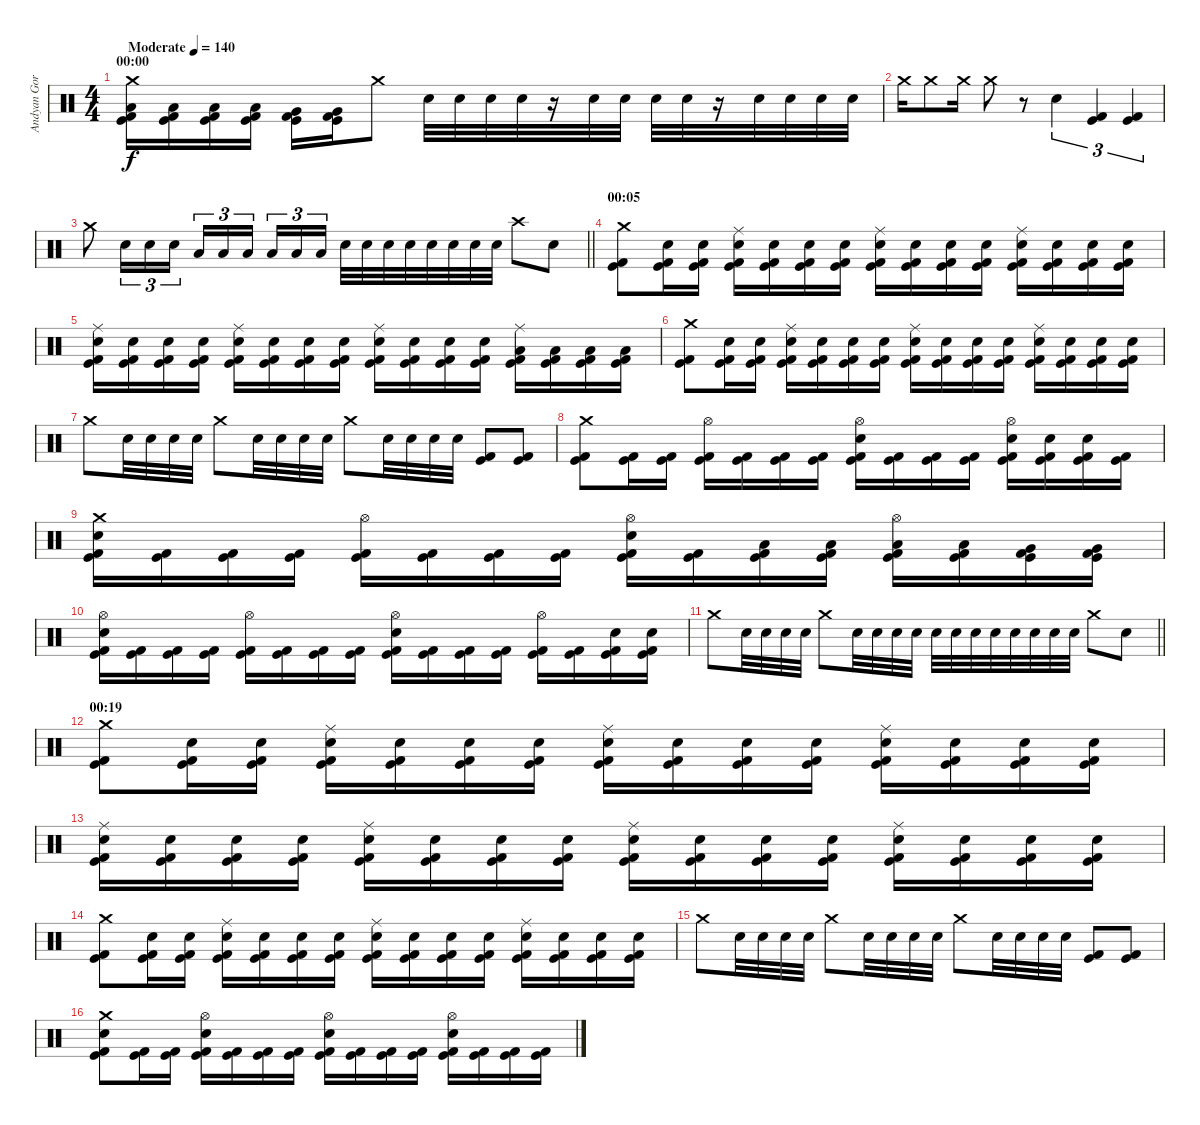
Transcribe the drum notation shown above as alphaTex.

\track ("Andyan Gorust" "Andyan Gor") {instrument percussion}
\staff {score}
\articulation defaults
\ts (4 4)
\section ("" "00:00")
\tempo (140 "Moderate")
\clef neutral
\ks c
("Crash medium (hit)" "Low Tom (hit)" "Kick (hit)" "Kick (hit) 2").16{dy f} ("Low Tom (hit)" "Kick (hit)" "Kick (hit) 2").16 ("Low Floor Tom (hit)" "Kick (hit)" "Kick (hit) 2").16 ("Low Floor Tom (hit)" "Kick (hit)" "Kick (hit) 2").16 ("Very Low Tom (hit)" "Kick (hit)" "Kick (hit) 2").16 ("Very Low Tom (hit)" "Kick (hit)" "Kick (hit) 2").16 "Crash medium (hit)".8 "Electric Snare (hit)".32 "Electric Snare (hit)".32 "Electric Snare (hit)".32 "Electric Snare (hit)".32 r.16 "Electric Snare (hit)".32 "Electric Snare (hit)".32 "Electric Snare (hit)".32 "Electric Snare (hit)".32 r.16 "Electric Snare (hit)".32 "Electric Snare (hit)".32 "Electric Snare (hit)".32 "Electric Snare (hit)".32 |
"Crash medium (hit)".16 "Crash medium (hit)".8 "Crash medium (hit)".16 "Crash medium (hit)".8 r.8 "Electric Snare (hit)".4{tu (3 2)} ("Kick (hit)" "Kick (hit) 2").4{tu (3 2)} ("Kick (hit)" "Kick (hit) 2").4{tu (3 2)} |
\barLineRight lightlight "Crash medium (hit)".8 "Electric Snare (hit)".16{tu (3 2)} "Electric Snare (hit)".16{tu (3 2)} "Electric Snare (hit)".16{tu (3 2)} "Low Tom (hit)".16{tu (3 2)} "Low Tom (hit)".16{tu (3 2)} "Low Tom (hit)".16{tu (3 2) beam splitsecondary} "Low Floor Tom (hit)".16{tu (3 2)} "Low Floor Tom (hit)".16{tu (3 2)} "Low Floor Tom (hit)".16{tu (3 2)} "Electric Snare (hit)".32 "Electric Snare (hit)".32 "Electric Snare (hit)".32 "Electric Snare (hit)".32 "Electric Snare (hit)".32 "Electric Snare (hit)".32 "Electric Snare (hit)".32 "Electric Snare (hit)".32 "Crash high (hit)".8 "Electric Snare (hit)".8
|
\section ("" "00:05")
("Crash medium (hit)" "Kick (hit)" "Kick (hit) 2").8 ("Electric Snare (hit)" "Kick (hit)" "Kick (hit) 2").16 ("Electric Snare (hit)" "Kick (hit)" "Kick (hit) 2").16 ("Ride (middle)" "Electric Snare (hit)" "Kick (hit)" "Kick (hit) 2").16 ("Electric Snare (hit)" "Kick (hit)" "Kick (hit) 2").16 ("Electric Snare (hit)" "Kick (hit)" "Kick (hit) 2").16 ("Electric Snare (hit)" "Kick (hit)" "Kick (hit) 2").16 ("Ride (middle)" "Electric Snare (hit)" "Kick (hit)" "Kick (hit) 2").16 ("Electric Snare (hit)" "Kick (hit)" "Kick (hit) 2").16 ("Electric Snare (hit)" "Kick (hit)" "Kick (hit) 2").16 ("Electric Snare (hit)" "Kick (hit)" "Kick (hit) 2").16 ("Ride (middle)" "Electric Snare (hit)" "Kick (hit)" "Kick (hit) 2").16 ("Electric Snare (hit)" "Kick (hit)" "Kick (hit) 2").16 ("Electric Snare (hit)" "Kick (hit)" "Kick (hit) 2").16 ("Electric Snare (hit)" "Kick (hit)" "Kick (hit) 2").16 |
("Ride (middle)" "Electric Snare (hit)" "Kick (hit)" "Kick (hit) 2").16 ("Electric Snare (hit)" "Kick (hit)" "Kick (hit) 2").16 ("Electric Snare (hit)" "Kick (hit)" "Kick (hit) 2").16 ("Electric Snare (hit)" "Kick (hit)" "Kick (hit) 2").16 ("Ride (middle)" "Electric Snare (hit)" "Kick (hit)" "Kick (hit) 2").16 ("Electric Snare (hit)" "Kick (hit)" "Kick (hit) 2").16 ("Electric Snare (hit)" "Kick (hit)" "Kick (hit) 2").16 ("Electric Snare (hit)" "Kick (hit)" "Kick (hit) 2").16 ("Ride (middle)" "Electric Snare (hit)" "Kick (hit)" "Kick (hit) 2").16 ("Electric Snare (hit)" "Kick (hit)" "Kick (hit) 2").16 ("Electric Snare (hit)" "Kick (hit)" "Kick (hit) 2").16 ("Electric Snare (hit)" "Kick (hit)" "Kick (hit) 2").16 ("Ride (middle)" "Low Tom (hit)" "Kick (hit)" "Kick (hit) 2").16 ("Low Tom (hit)" "Kick (hit)" "Kick (hit) 2").16 ("Low Floor Tom (hit)" "Kick (hit)" "Kick (hit) 2").16 ("Low Floor Tom (hit)" "Kick (hit)" "Kick (hit) 2").16 |
("Crash medium (hit)" "Kick (hit)" "Kick (hit) 2").8 ("Electric Snare (hit)" "Kick (hit)" "Kick (hit) 2").16 ("Electric Snare (hit)" "Kick (hit)" "Kick (hit) 2").16 ("Ride (middle)" "Electric Snare (hit)" "Kick (hit)" "Kick (hit) 2").16 ("Electric Snare (hit)" "Kick (hit)" "Kick (hit) 2").16 ("Electric Snare (hit)" "Kick (hit)" "Kick (hit) 2").16 ("Electric Snare (hit)" "Kick (hit)" "Kick (hit) 2").16 ("Ride (middle)" "Electric Snare (hit)" "Kick (hit)" "Kick (hit) 2").16 ("Electric Snare (hit)" "Kick (hit)" "Kick (hit) 2").16 ("Electric Snare (hit)" "Kick (hit)" "Kick (hit) 2").16 ("Electric Snare (hit)" "Kick (hit)" "Kick (hit) 2").16 ("Ride (middle)" "Electric Snare (hit)" "Kick (hit)" "Kick (hit) 2").16 ("Electric Snare (hit)" "Kick (hit)" "Kick (hit) 2").16 ("Electric Snare (hit)" "Kick (hit)" "Kick (hit) 2").16 ("Electric Snare (hit)" "Kick (hit)" "Kick (hit) 2").16 |
"Crash medium (hit)".8 "Electric Snare (hit)".32 "Electric Snare (hit)".32 "Electric Snare (hit)".32 "Electric Snare (hit)".32 "Crash medium (hit)".8 "Electric Snare (hit)".32 "Electric Snare (hit)".32 "Electric Snare (hit)".32 "Electric Snare (hit)".32 "Crash medium (hit)".8 "Electric Snare (hit)".32 "Electric Snare (hit)".32 "Electric Snare (hit)".32 "Electric Snare (hit)".32 ("Kick (hit)" "Kick (hit) 2").8 ("Kick (hit)" "Kick (hit) 2").8 |
("Crash medium (hit)" "Kick (hit) 2" "Kick (hit)").8 ("Kick (hit)" "Kick (hit) 2").16 ("Kick (hit)" "Kick (hit) 2").16 ("Hi-Hat (open)" "Kick (hit)" "Kick (hit) 2").16 ("Kick (hit)" "Kick (hit) 2").16 ("Kick (hit)" "Kick (hit) 2").16 ("Kick (hit)" "Kick (hit) 2").16 ("Hi-Hat (open)" "Electric Snare (hit)" "Kick (hit)" "Kick (hit) 2").16 ("Kick (hit)" "Kick (hit) 2").16 ("Kick (hit)" "Kick (hit) 2").16 ("Kick (hit)" "Kick (hit) 2").16 ("Hi-Hat (open)" "Electric Snare (hit)" "Kick (hit)" "Kick (hit) 2").16 ("Electric Snare (hit)" "Kick (hit)" "Kick (hit) 2").16 ("Electric Snare (hit)" "Kick (hit)" "Kick (hit) 2").16 ("Kick (hit)" "Kick (hit) 2").16 |
("Crash medium (hit)" "Electric Snare (hit)" "Kick (hit) 2" "Kick (hit)").16 ("Kick (hit)" "Kick (hit) 2").16 ("Kick (hit)" "Kick (hit) 2").16 ("Kick (hit)" "Kick (hit) 2").16 ("Hi-Hat (open)" "Kick (hit)" "Kick (hit) 2").16 ("Kick (hit)" "Kick (hit) 2").16 ("Kick (hit)" "Kick (hit) 2").16 ("Kick (hit)" "Kick (hit) 2").16 ("Hi-Hat (open)" "Electric Snare (hit)" "Kick (hit)" "Kick (hit) 2").16 ("Kick (hit)" "Kick (hit) 2").16 ("Low Tom (hit)" "Kick (hit)" "Kick (hit) 2").16 ("Low Tom (hit)" "Kick (hit)" "Kick (hit) 2").16 ("Hi-Hat (open)" "Low Floor Tom (hit)" "Kick (hit)" "Kick (hit) 2").16 ("Low Floor Tom (hit)" "Kick (hit)" "Kick (hit) 2").16 ("Very Low Tom (hit)" "Kick (hit)" "Kick (hit) 2").16 ("Very Low Tom (hit)" "Kick (hit)" "Kick (hit) 2").16 |
("Hi-Hat (open)" "Electric Snare (hit)" "Kick (hit) 2" "Kick (hit)").16 ("Kick (hit)" "Kick (hit) 2").16 ("Kick (hit)" "Kick (hit) 2").16 ("Kick (hit)" "Kick (hit) 2").16 ("Hi-Hat (open)" "Kick (hit)" "Kick (hit) 2").16 ("Kick (hit)" "Kick (hit) 2").16 ("Kick (hit)" "Kick (hit) 2").16 ("Kick (hit)" "Kick (hit) 2").16 ("Hi-Hat (open)" "Electric Snare (hit)" "Kick (hit)" "Kick (hit) 2").16 ("Kick (hit)" "Kick (hit) 2").16 ("Kick (hit)" "Kick (hit) 2").16 ("Kick (hit)" "Kick (hit) 2").16 ("Hi-Hat (open)" "Kick (hit)" "Kick (hit) 2").16 ("Kick (hit)" "Kick (hit) 2").16 ("Electric Snare (hit)" "Kick (hit)" "Kick (hit) 2").16 ("Electric Snare (hit)" "Kick (hit)" "Kick (hit) 2").16 |
\barLineRight lightlight "Crash medium (hit)".8 "Electric Snare (hit)".32 "Electric Snare (hit)".32 "Electric Snare (hit)".32 "Electric Snare (hit)".32 "Crash medium (hit)".8 "Electric Snare (hit)".32 "Electric Snare (hit)".32 "Electric Snare (hit)".32 "Electric Snare (hit)".32 "Electric Snare (hit)".32 "Electric Snare (hit)".32 "Electric Snare (hit)".32 "Electric Snare (hit)".32 "Electric Snare (hit)".32 "Electric Snare (hit)".32 "Electric Snare (hit)".32 "Electric Snare (hit)".32 "Crash medium (hit)".8 "Electric Snare (hit)".8
|
\section ("" "00:19")
("Crash medium (hit)" "Kick (hit)" "Kick (hit) 2").8 ("Electric Snare (hit)" "Kick (hit)" "Kick (hit) 2").16 ("Electric Snare (hit)" "Kick (hit)" "Kick (hit) 2").16 ("Ride (middle)" "Electric Snare (hit)" "Kick (hit)" "Kick (hit) 2").16 ("Electric Snare (hit)" "Kick (hit)" "Kick (hit) 2").16 ("Electric Snare (hit)" "Kick (hit)" "Kick (hit) 2").16 ("Electric Snare (hit)" "Kick (hit)" "Kick (hit) 2").16 ("Ride (middle)" "Electric Snare (hit)" "Kick (hit)" "Kick (hit) 2").16 ("Electric Snare (hit)" "Kick (hit)" "Kick (hit) 2").16 ("Electric Snare (hit)" "Kick (hit)" "Kick (hit) 2").16 ("Electric Snare (hit)" "Kick (hit)" "Kick (hit) 2").16 ("Ride (middle)" "Electric Snare (hit)" "Kick (hit)" "Kick (hit) 2").16 ("Electric Snare (hit)" "Kick (hit)" "Kick (hit) 2").16 ("Electric Snare (hit)" "Kick (hit)" "Kick (hit) 2").16 ("Electric Snare (hit)" "Kick (hit)" "Kick (hit) 2").16 |
("Ride (middle)" "Electric Snare (hit)" "Kick (hit)" "Kick (hit) 2").16 ("Electric Snare (hit)" "Kick (hit)" "Kick (hit) 2").16 ("Electric Snare (hit)" "Kick (hit)" "Kick (hit) 2").16 ("Electric Snare (hit)" "Kick (hit)" "Kick (hit) 2").16 ("Ride (middle)" "Electric Snare (hit)" "Kick (hit)" "Kick (hit) 2").16 ("Electric Snare (hit)" "Kick (hit)" "Kick (hit) 2").16 ("Electric Snare (hit)" "Kick (hit)" "Kick (hit) 2").16 ("Electric Snare (hit)" "Kick (hit)" "Kick (hit) 2").16 ("Ride (middle)" "Electric Snare (hit)" "Kick (hit)" "Kick (hit) 2").16 ("Electric Snare (hit)" "Kick (hit)" "Kick (hit) 2").16 ("Electric Snare (hit)" "Kick (hit)" "Kick (hit) 2").16 ("Electric Snare (hit)" "Kick (hit)" "Kick (hit) 2").16 ("Ride (middle)" "Electric Snare (hit)" "Kick (hit)" "Kick (hit) 2").16 ("Electric Snare (hit)" "Kick (hit)" "Kick (hit) 2").16 ("Electric Snare (hit)" "Kick (hit)" "Kick (hit) 2").16 ("Electric Snare (hit)" "Kick (hit)" "Kick (hit) 2").16 |
("Crash medium (hit)" "Kick (hit)" "Kick (hit) 2").8 ("Electric Snare (hit)" "Kick (hit)" "Kick (hit) 2").16 ("Electric Snare (hit)" "Kick (hit)" "Kick (hit) 2").16 ("Ride (middle)" "Electric Snare (hit)" "Kick (hit)" "Kick (hit) 2").16 ("Electric Snare (hit)" "Kick (hit)" "Kick (hit) 2").16 ("Electric Snare (hit)" "Kick (hit)" "Kick (hit) 2").16 ("Electric Snare (hit)" "Kick (hit)" "Kick (hit) 2").16 ("Ride (middle)" "Electric Snare (hit)" "Kick (hit)" "Kick (hit) 2").16 ("Electric Snare (hit)" "Kick (hit)" "Kick (hit) 2").16 ("Electric Snare (hit)" "Kick (hit)" "Kick (hit) 2").16 ("Electric Snare (hit)" "Kick (hit)" "Kick (hit) 2").16 ("Ride (middle)" "Electric Snare (hit)" "Kick (hit)" "Kick (hit) 2").16 ("Electric Snare (hit)" "Kick (hit)" "Kick (hit) 2").16 ("Electric Snare (hit)" "Kick (hit)" "Kick (hit) 2").16 ("Electric Snare (hit)" "Kick (hit)" "Kick (hit) 2").16 |
"Crash medium (hit)".8 "Electric Snare (hit)".32 "Electric Snare (hit)".32 "Electric Snare (hit)".32 "Electric Snare (hit)".32 "Crash medium (hit)".8 "Electric Snare (hit)".32 "Electric Snare (hit)".32 "Electric Snare (hit)".32 "Electric Snare (hit)".32 "Crash medium (hit)".8 "Electric Snare (hit)".32 "Electric Snare (hit)".32 "Electric Snare (hit)".32 "Electric Snare (hit)".32 ("Kick (hit)" "Kick (hit) 2").8 ("Kick (hit)" "Kick (hit) 2").8 |
("Crash medium (hit)" "Electric Snare (hit)" "Kick (hit) 2" "Kick (hit)").8 ("Kick (hit)" "Kick (hit) 2").16 ("Kick (hit)" "Kick (hit) 2").16 ("Hi-Hat (open)" "Electric Snare (hit)" "Kick (hit)" "Kick (hit) 2").16 ("Kick (hit)" "Kick (hit) 2").16 ("Kick (hit)" "Kick (hit) 2").16 ("Kick (hit)" "Kick (hit) 2").16 ("Hi-Hat (open)" "Electric Snare (hit)" "Kick (hit)" "Kick (hit) 2").16 ("Kick (hit)" "Kick (hit) 2").16 ("Kick (hit)" "Kick (hit) 2").16 ("Kick (hit)" "Kick (hit) 2").16 ("Hi-Hat (open)" "Electric Snare (hit)" "Kick (hit)" "Kick (hit) 2").16 ("Kick (hit)" "Kick (hit) 2").16 ("Kick (hit)" "Kick (hit) 2").16 ("Kick (hit)" "Kick (hit) 2").16
